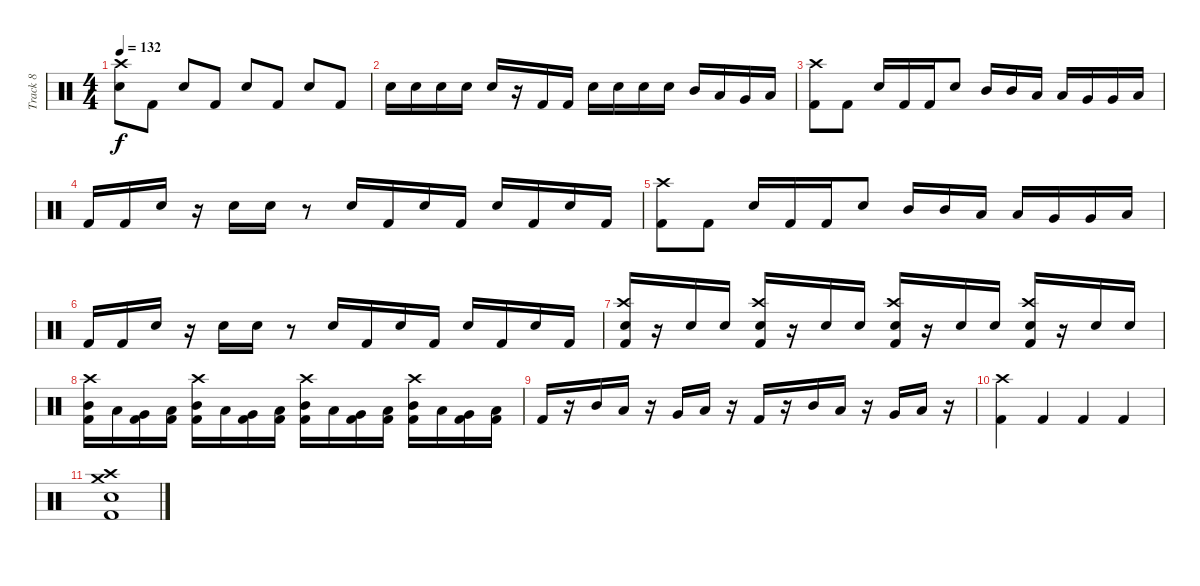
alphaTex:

\track ("Track 8" "Track 8") {instrument percussion}
\staff {score}
\articulation defaults
\ts (4 4)
\tempo 132
\clef neutral
\ks c
("Snare (hit) 2" "Crash high (hit)").8{dy f} "Kick (hit) 2".8 "Snare (hit) 2".8 "Kick (hit) 2".8 "Snare (hit) 2".8 "Kick (hit) 2".8 "Snare (hit) 2".8 "Kick (hit) 2".8 |
"Snare (hit) 2".16 "Snare (hit) 2".16 "Snare (hit) 2".16 "Snare (hit) 2".16 "Snare (hit) 2".16 r.16 "Kick (hit) 2".16 "Kick (hit) 2".16 "Snare (hit) 2".16 "Snare (hit) 2".16 "Snare (hit) 2".16 "Snare (hit) 2".16 "Mid Tom (hit)".16 "Low Tom (hit)".16 "Very Low Tom (hit)".16 "Low Floor Tom (hit)".16 |
("Kick (hit) 2" "Crash high (hit)").8 "Kick (hit) 2".8 "Snare (hit) 2".16 "Kick (hit) 2".16 "Kick (hit) 2".16 "Snare (hit) 2".8 "Mid Tom (hit)".16 "Mid Tom (hit)".16 "Low Tom (hit)".16 "Low Tom (hit)".16 "Very Low Tom (hit)".16 "Very Low Tom (hit)".16 "Low Floor Tom (hit)".16 |
"Kick (hit) 2".16 "Kick (hit) 2".16 "Snare (hit) 2".16 r.16 "Snare (hit) 2".16 "Snare (hit) 2".16 r.8 "Snare (hit) 2".16 "Kick (hit) 2".16 "Snare (hit) 2".16 "Kick (hit) 2".16 "Snare (hit) 2".16 "Kick (hit) 2".16 "Snare (hit) 2".16 "Kick (hit) 2".16 |
("Kick (hit) 2" "Crash high (hit)").8 "Kick (hit) 2".8 "Snare (hit) 2".16 "Kick (hit) 2".16 "Kick (hit) 2".16 "Snare (hit) 2".8 "Mid Tom (hit)".16 "Mid Tom (hit)".16 "Low Tom (hit)".16 "Low Tom (hit)".16 "Very Low Tom (hit)".16 "Very Low Tom (hit)".16 "Low Floor Tom (hit)".16 |
"Kick (hit) 2".16 "Kick (hit) 2".16 "Snare (hit) 2".16 r.16 "Snare (hit) 2".16 "Snare (hit) 2".16 r.8 "Snare (hit) 2".16 "Kick (hit) 2".16 "Snare (hit) 2".16 "Kick (hit) 2".16 "Snare (hit) 2".16 "Kick (hit) 2".16 "Snare (hit) 2".16 "Kick (hit) 2".16 |
("Kick (hit) 2" "Snare (hit) 2" "Crash high (hit)").16 r.16 "Snare (hit) 2".16 "Snare (hit) 2".16 ("Kick (hit) 2" "Snare (hit) 2" "Crash high (hit)").16 r.16 "Snare (hit) 2".16 "Snare (hit) 2".16 ("Kick (hit) 2" "Snare (hit) 2" "Crash high (hit)").16 r.16 "Snare (hit) 2".16 "Snare (hit) 2".16 ("Kick (hit) 2" "Snare (hit) 2" "Crash high (hit)").16 r.16 "Snare (hit) 2".16 "Snare (hit) 2".16 |
("Kick (hit) 2" "Mid Tom (hit)" "Crash high (hit)").16 "Low Tom (hit)".16 ("Kick (hit) 2" "Very Low Tom (hit)").16 ("Kick (hit) 2" "Low Floor Tom (hit)").16 ("Kick (hit) 2" "Mid Tom (hit)" "Crash high (hit)").16 "Low Tom (hit)".16 ("Kick (hit) 2" "Very Low Tom (hit)").16 ("Kick (hit) 2" "Low Floor Tom (hit)").16 ("Kick (hit) 2" "Mid Tom (hit)" "Crash high (hit)").16 "Low Tom (hit)".16 ("Kick (hit) 2" "Very Low Tom (hit)").16 ("Kick (hit) 2" "Low Floor Tom (hit)").16 ("Kick (hit) 2" "Mid Tom (hit)" "Crash high (hit)").16 "Low Tom (hit)".16 ("Kick (hit) 2" "Very Low Tom (hit)").16 ("Kick (hit) 2" "Low Floor Tom (hit)").16 |
"Kick (hit) 2".16 r.16 "Mid Tom (hit)".16 "Low Tom (hit)".16 r.16 "Very Low Tom (hit)".16 "Low Floor Tom (hit)".16 r.16 "Kick (hit) 2".16 r.16 "Mid Tom (hit)".16 "Low Tom (hit)".16 r.16 "Very Low Tom (hit)".16 "Low Floor Tom (hit)".16 r.16 |
("Kick (hit) 2" "Crash high (hit)").4 "Kick (hit) 2".4 "Kick (hit) 2".4 "Kick (hit) 2".4 |
("Crash medium (hit)" "Crash high (hit)" "Electric Snare (hit)" "Kick (hit) 2").1
